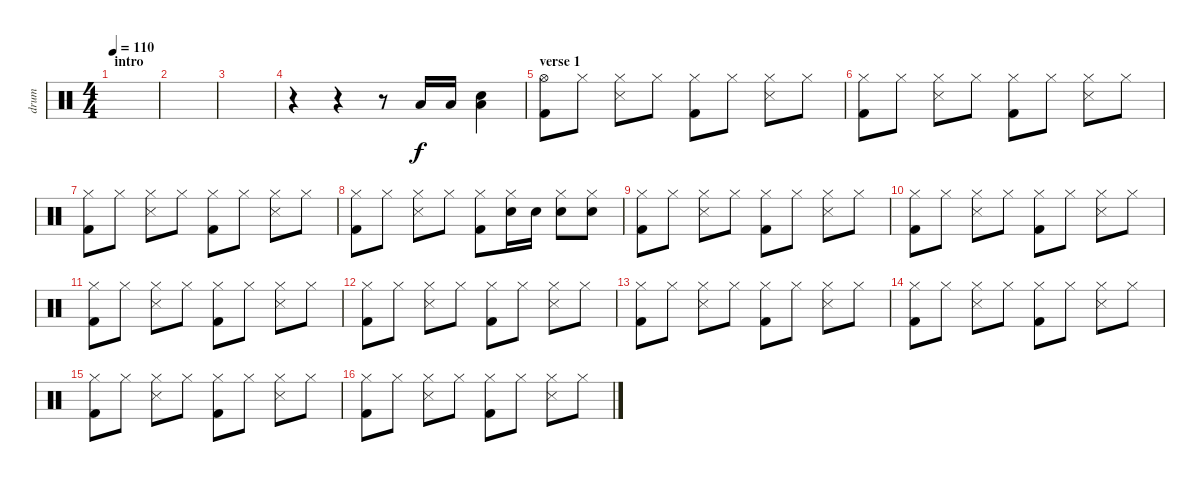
\track ("drum" "drum") {instrument percussion}
\staff {score}
\articulation defaults
\ts (4 4)
\section ("" "intro")
\tempo 110
\clef neutral
\ks c
|
|
|
r.4 r.4 r.8 "Low Floor Tom (hit)".16 "Low Floor Tom (hit)".16 ("Electric Snare (hit)" "Low Tom (hit)").4 |
\section ("" "verse 1")
("Hi-Hat (open)" "Kick (hit) 2").8{dy f} "Hi-Hat (closed)".8 ("Hi-Hat (closed)" "Snare (side stick) 3").8 "Hi-Hat (closed)".8 ("Hi-Hat (closed)" "Kick (hit) 2").8 "Hi-Hat (closed)".8 ("Hi-Hat (closed)" "Snare (side stick) 3").8 "Hi-Hat (closed)".8 |
("Hi-Hat (closed)" "Kick (hit) 2").8 "Hi-Hat (closed)".8 ("Hi-Hat (closed)" "Snare (side stick) 3").8 "Hi-Hat (closed)".8 ("Hi-Hat (closed)" "Kick (hit) 2").8 "Hi-Hat (closed)".8 ("Hi-Hat (closed)" "Snare (side stick) 3").8 "Hi-Hat (closed)".8 |
("Hi-Hat (closed)" "Kick (hit) 2").8 "Hi-Hat (closed)".8 ("Hi-Hat (closed)" "Snare (side stick) 3").8 "Hi-Hat (closed)".8 ("Hi-Hat (closed)" "Kick (hit) 2").8 "Hi-Hat (closed)".8 ("Hi-Hat (closed)" "Snare (side stick) 3").8 "Hi-Hat (closed)".8 |
("Hi-Hat (closed)" "Kick (hit) 2").8 "Hi-Hat (closed)".8 ("Hi-Hat (closed)" "Snare (side stick) 3").8 "Hi-Hat (closed)".8 ("Hi-Hat (closed)" "Kick (hit) 2").8 ("Hi-Hat (closed)" "Electric Snare (hit)").16 "Electric Snare (hit)".16 ("Hi-Hat (closed)" "Electric Snare (hit)").8 ("Hi-Hat (closed)" "Electric Snare (hit)").8 |
("Hi-Hat (closed)" "Kick (hit) 2").8 "Hi-Hat (closed)".8 ("Hi-Hat (closed)" "Snare (side stick) 3").8 "Hi-Hat (closed)".8 ("Hi-Hat (closed)" "Kick (hit) 2").8 "Hi-Hat (closed)".8 ("Hi-Hat (closed)" "Snare (side stick) 3").8 "Hi-Hat (closed)".8 |
("Hi-Hat (closed)" "Kick (hit) 2").8 "Hi-Hat (closed)".8 ("Hi-Hat (closed)" "Snare (side stick) 3").8 "Hi-Hat (closed)".8 ("Hi-Hat (closed)" "Kick (hit) 2").8 "Hi-Hat (closed)".8 ("Hi-Hat (closed)" "Snare (side stick) 3").8 "Hi-Hat (closed)".8 |
("Hi-Hat (closed)" "Kick (hit) 2").8 "Hi-Hat (closed)".8 ("Hi-Hat (closed)" "Snare (side stick) 3").8 "Hi-Hat (closed)".8 ("Hi-Hat (closed)" "Kick (hit) 2").8 "Hi-Hat (closed)".8 ("Hi-Hat (closed)" "Snare (side stick) 3").8 "Hi-Hat (closed)".8 |
("Hi-Hat (closed)" "Kick (hit) 2").8 "Hi-Hat (closed)".8 ("Hi-Hat (closed)" "Snare (side stick) 3").8 "Hi-Hat (closed)".8 ("Hi-Hat (closed)" "Kick (hit) 2").8 "Hi-Hat (closed)".8 ("Hi-Hat (closed)" "Snare (side stick) 3").8 "Hi-Hat (closed)".8 |
("Hi-Hat (closed)" "Kick (hit) 2").8 "Hi-Hat (closed)".8 ("Hi-Hat (closed)" "Snare (side stick) 3").8 "Hi-Hat (closed)".8 ("Hi-Hat (closed)" "Kick (hit) 2").8 "Hi-Hat (closed)".8 ("Hi-Hat (closed)" "Snare (side stick) 3").8 "Hi-Hat (closed)".8 |
("Hi-Hat (closed)" "Kick (hit) 2").8 "Hi-Hat (closed)".8 ("Hi-Hat (closed)" "Snare (side stick) 3").8 "Hi-Hat (closed)".8 ("Hi-Hat (closed)" "Kick (hit) 2").8 "Hi-Hat (closed)".8 ("Hi-Hat (closed)" "Snare (side stick) 3").8 "Hi-Hat (closed)".8 |
("Hi-Hat (closed)" "Kick (hit) 2").8 "Hi-Hat (closed)".8 ("Hi-Hat (closed)" "Snare (side stick) 3").8 "Hi-Hat (closed)".8 ("Hi-Hat (closed)" "Kick (hit) 2").8 "Hi-Hat (closed)".8 ("Hi-Hat (closed)" "Snare (side stick) 3").8 "Hi-Hat (closed)".8 |
("Hi-Hat (closed)" "Kick (hit) 2").8 "Hi-Hat (closed)".8 ("Hi-Hat (closed)" "Snare (side stick) 3").8 "Hi-Hat (closed)".8 ("Hi-Hat (closed)" "Kick (hit) 2").8 "Hi-Hat (closed)".8 ("Hi-Hat (closed)" "Snare (side stick) 3").8 "Hi-Hat (closed)".8
